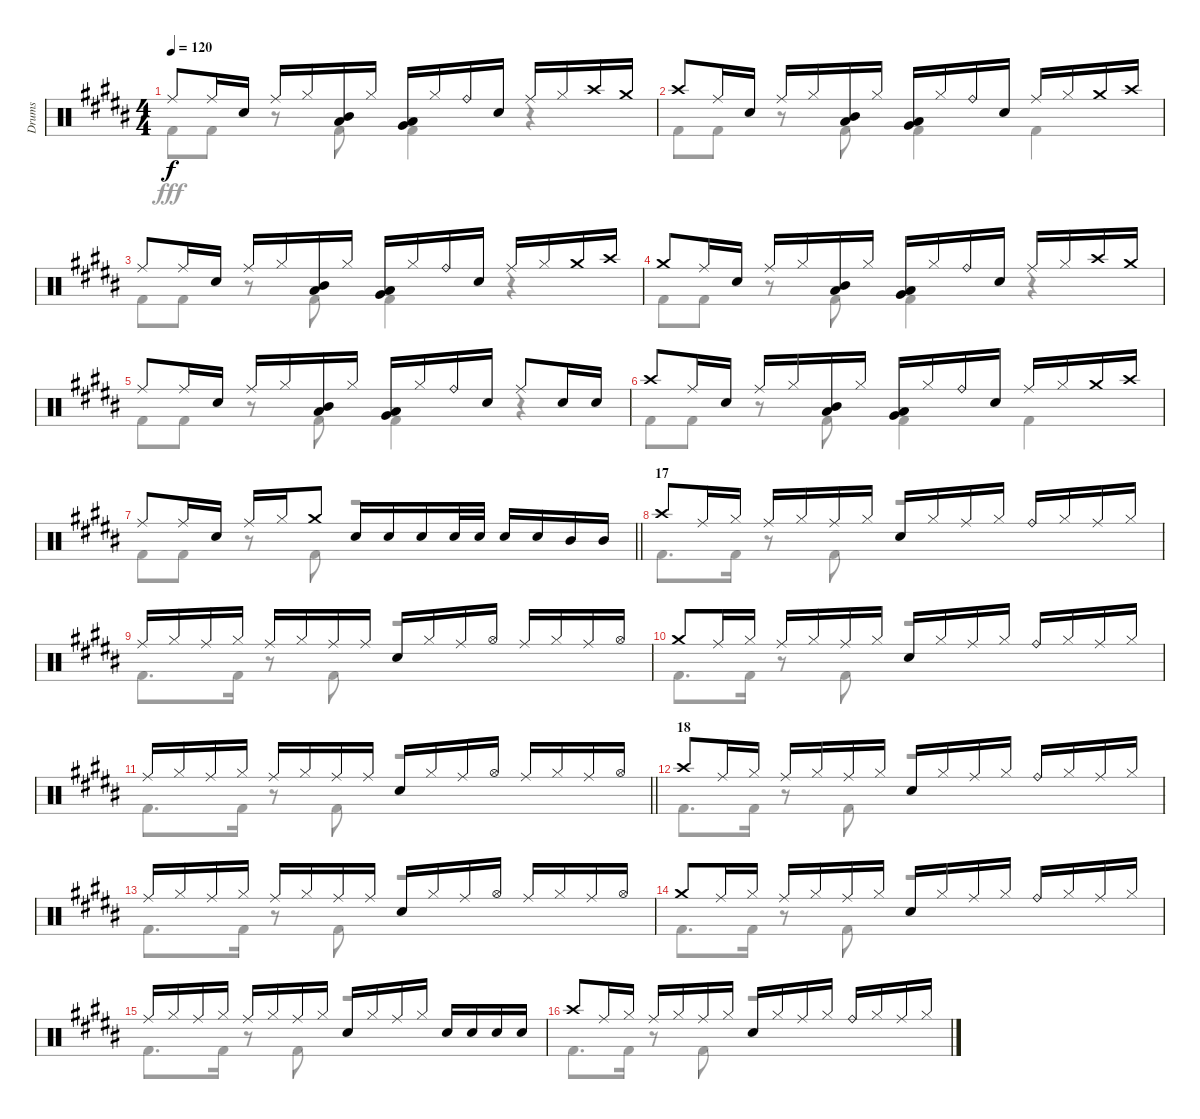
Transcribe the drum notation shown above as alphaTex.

\track ("Drums" "Drums") {instrument percussion}
\staff {score}
\articulation defaults
\voice
\ts (4 4)
\tempo 120
\clef neutral
\ks b "Ride (middle)".8{dy f} "Ride (middle)".16 "Snare (hit) 2".16 "Ride (middle)".16 "Hi-Hat (closed)".16
("Mid Tom (hit)" "Low Tom (hit)").16 "Hi-Hat (closed)".16 ("Low Tom (hit)" "Very Low Tom (hit)").16 "Hi-Hat (closed)".16 "Ride (bell)".16 "Snare (hit) 2".16 "Ride (middle)".16 "Hi-Hat (closed)".16 "Crash high (hit)".16 "Crash medium (hit)".16 |
"Crash high (hit)".8 "Ride (middle)".16 "Snare (hit) 2".16 "Ride (middle)".16 "Hi-Hat (closed)".16 ("Mid Tom (hit)" "Low Tom (hit)").16 "Hi-Hat (closed)".16 ("Low Tom (hit)" "Very Low Tom (hit)").16 "Hi-Hat (closed)".16 "Ride (bell)".16 "Snare (hit) 2".16 "Ride (middle)".16 "Hi-Hat (closed)".16 "Crash medium (hit)".16 "Crash high (hit)".16 |
"Ride (middle)".8 "Ride (middle)".16 "Snare (hit) 2".16 "Ride (middle)".16 "Hi-Hat (closed)".16 ("Mid Tom (hit)" "Low Tom (hit)").16 "Hi-Hat (closed)".16 ("Low Tom (hit)" "Very Low Tom (hit)").16 "Hi-Hat (closed)".16 "Ride (bell)".16 "Snare (hit) 2".16 "Ride (middle)".16 "Hi-Hat (closed)".16 "Crash medium (hit)".16 "Crash high (hit)".16 |
"Crash medium (hit)".8 "Ride (middle)".16 "Snare (hit) 2".16 "Ride (middle)".16 "Hi-Hat (closed)".16 ("Mid Tom (hit)" "Low Tom (hit)").16 "Hi-Hat (closed)".16 ("Low Tom (hit)" "Very Low Tom (hit)").16 "Hi-Hat (closed)".16 "Ride (bell)".16 "Snare (hit) 2".16 "Ride (middle)".16 "Hi-Hat (closed)".16 "Crash high (hit)".16 "Crash medium (hit)".16 |
"Ride (middle)".8 "Ride (middle)".16 "Snare (hit) 2".16 "Ride (middle)".16 "Hi-Hat (closed)".16 ("Mid Tom (hit)" "Low Tom (hit)").16 "Hi-Hat (closed)".16 ("Low Tom (hit)" "Very Low Tom (hit)").16 "Hi-Hat (closed)".16 "Ride (bell)".16 "Snare (hit) 2".16 "Ride (middle)".8 "Snare (hit) 2".16 "Snare (hit) 2".16 |
"Crash high (hit)".8 "Ride (middle)".16 "Snare (hit) 2".16 "Ride (middle)".16 "Hi-Hat (closed)".16 ("Mid Tom (hit)" "Low Tom (hit)").16 "Hi-Hat (closed)".16 ("Low Tom (hit)" "Very Low Tom (hit)").16 "Hi-Hat (closed)".16 "Ride (bell)".16 "Snare (hit) 2".16 "Ride (middle)".16 "Hi-Hat (closed)".16 "Crash medium (hit)".16 "Crash high (hit)".16 |
\barLineRight lightlight "Ride (middle)".8 "Ride (middle)".16 "Snare (hit) 2".16 "Ride (middle)".16 "Hi-Hat (closed)".16 "Crash medium (hit)".8 "Snare (hit) 2".16 "Snare (hit) 2".16 "Snare (hit) 2".16 "Snare (hit) 2".32 "Snare (hit) 2".32 "Snare (hit) 2".16 "Snare (hit) 2".16 "Mid Tom (hit)".16 "Mid Tom (hit)".16
|
\section ("" "17")
"Crash high (hit)".8 "Ride (middle)".16 "Hi-Hat (closed)".16 "Ride (middle)".16 "Hi-Hat (closed)".16 "Ride (middle)".16 "Hi-Hat (closed)".16 "Snare (hit) 2".16 "Hi-Hat (closed)".16 "Ride (middle)".16 "Hi-Hat (closed)".16 "Ride (bell)".16 "Hi-Hat (closed)".16 "Ride (middle)".16 "Hi-Hat (closed)".16 |
"Ride (middle)".16 "Hi-Hat (closed)".16 "Ride (middle)".16 "Hi-Hat (closed)".16 "Ride (middle)".16 "Hi-Hat (closed)".16 "Ride (middle)".16 "Ride (middle)".16 "Snare (hit) 2".16 "Hi-Hat (closed)".16 "Ride (middle)".16 "Hi-Hat (open)".16 "Ride (middle)".16 "Hi-Hat (closed)".16 "Ride (middle)".16 "Hi-Hat (open)".16 |
"Crash medium (hit)".8 "Ride (middle)".16 "Hi-Hat (closed)".16 "Ride (middle)".16 "Hi-Hat (closed)".16 "Ride (middle)".16 "Hi-Hat (closed)".16 "Snare (hit) 2".16 "Hi-Hat (closed)".16 "Ride (middle)".16 "Hi-Hat (closed)".16 "Ride (bell)".16 "Hi-Hat (closed)".16 "Ride (middle)".16 "Hi-Hat (closed)".16 |
\barLineRight lightlight "Ride (middle)".16 "Hi-Hat (closed)".16 "Ride (middle)".16 "Hi-Hat (closed)".16 "Ride (middle)".16 "Hi-Hat (closed)".16 "Ride (middle)".16 "Ride (middle)".16 "Snare (hit) 2".16 "Hi-Hat (closed)".16 "Ride (middle)".16 "Hi-Hat (open)".16 "Ride (middle)".16 "Hi-Hat (closed)".16 "Ride (middle)".16 "Hi-Hat (open)".16
|
\section ("" "18")
"Crash high (hit)".8 "Ride (middle)".16 "Hi-Hat (closed)".16 "Ride (middle)".16 "Hi-Hat (closed)".16 "Ride (middle)".16 "Hi-Hat (closed)".16 "Snare (hit) 2".16 "Hi-Hat (closed)".16 "Ride (middle)".16 "Hi-Hat (closed)".16 "Ride (bell)".16 "Hi-Hat (closed)".16 "Ride (middle)".16 "Hi-Hat (closed)".16 |
"Ride (middle)".16 "Hi-Hat (closed)".16 "Ride (middle)".16 "Hi-Hat (closed)".16 "Ride (middle)".16 "Hi-Hat (closed)".16 "Ride (middle)".16 "Ride (middle)".16 "Snare (hit) 2".16 "Hi-Hat (closed)".16 "Ride (middle)".16 "Hi-Hat (open)".16 "Ride (middle)".16 "Hi-Hat (closed)".16 "Ride (middle)".16 "Hi-Hat (open)".16 |
"Crash medium (hit)".8 "Ride (middle)".16 "Hi-Hat (closed)".16 "Ride (middle)".16 "Hi-Hat (closed)".16 "Ride (middle)".16 "Hi-Hat (closed)".16 "Snare (hit) 2".16 "Hi-Hat (closed)".16 "Ride (middle)".16 "Hi-Hat (closed)".16 "Ride (bell)".16 "Hi-Hat (closed)".16 "Ride (middle)".16 "Hi-Hat (closed)".16 |
"Ride (middle)".16 "Hi-Hat (closed)".16 "Ride (middle)".16 "Hi-Hat (closed)".16 "Ride (middle)".16 "Hi-Hat (closed)".16 "Ride (middle)".16 "Hi-Hat (closed)".16 "Snare (hit) 2".16 "Hi-Hat (closed)".16 "Ride (middle)".16 "Hi-Hat (closed)".16 "Snare (hit) 2".16 "Snare (hit) 2".16 "Snare (hit) 2".16 "Snare (hit) 2".16 |
"Crash high (hit)".8 "Ride (middle)".16 "Hi-Hat (closed)".16 "Ride (middle)".16 "Hi-Hat (closed)".16 "Ride (middle)".16 "Hi-Hat (closed)".16 "Snare (hit) 2".16 "Hi-Hat (closed)".16 "Ride (middle)".16 "Hi-Hat (closed)".16 "Ride (bell)".16 "Hi-Hat (closed)".16 "Ride (middle)".16 "Hi-Hat (closed)".16
\voice
\clef neutral
\ottava regular
\simile none
\ks b "Kick (hit) 2".8{dy fff} "Kick (hit) 2".8
r.8 "Kick (hit) 2".8 "Kick (hit) 2".4 r.4 |
"Kick (hit) 2".8 "Kick (hit) 2".8 r.8 "Kick (hit) 2".8 "Kick (hit) 2".4 "Kick (hit) 2".4 |
"Kick (hit) 2".8 "Kick (hit) 2".8 r.8 "Kick (hit) 2".8 "Kick (hit) 2".4 r.4 |
"Kick (hit) 2".8 "Kick (hit) 2".8 r.8 "Kick (hit) 2".8 "Kick (hit) 2".4 r.4 |
"Kick (hit) 2".8 "Kick (hit) 2".8 r.8 "Kick (hit) 2".8 "Kick (hit) 2".4 r.4 |
"Kick (hit) 2".8 "Kick (hit) 2".8 r.8 "Kick (hit) 2".8 "Kick (hit) 2".4 "Kick (hit) 2".4 |
\barLineRight lightlight "Kick (hit) 2".8 "Kick (hit) 2".8
r.8 "Kick (hit) 2".8 r.2 |
"Kick (hit) 2".8{d} "Kick (hit) 2".16 r.8 "Kick (hit) 2".8 r.2 |
"Kick (hit) 2".8{d} "Kick (hit) 2".16 r.8 "Kick (hit) 2".8 r.2 |
"Kick (hit) 2".8{d} "Kick (hit) 2".16 r.8 "Kick (hit) 2".8 r.2 |
\barLineRight lightlight "Kick (hit) 2".8{d} "Kick (hit) 2".16
r.8 "Kick (hit) 2".8 r.2 |
"Kick (hit) 2".8{d} "Kick (hit) 2".16 r.8 "Kick (hit) 2".8 r.2 |
"Kick (hit) 2".8{d} "Kick (hit) 2".16 r.8 "Kick (hit) 2".8 r.2 |
"Kick (hit) 2".8{d} "Kick (hit) 2".16 r.8 "Kick (hit) 2".8 r.2 |
"Kick (hit) 2".8{d} "Kick (hit) 2".16 r.8 "Kick (hit) 2".8 r.2 |
"Kick (hit) 2".8{d} "Kick (hit) 2".16 r.8 "Kick (hit) 2".8 r.2
